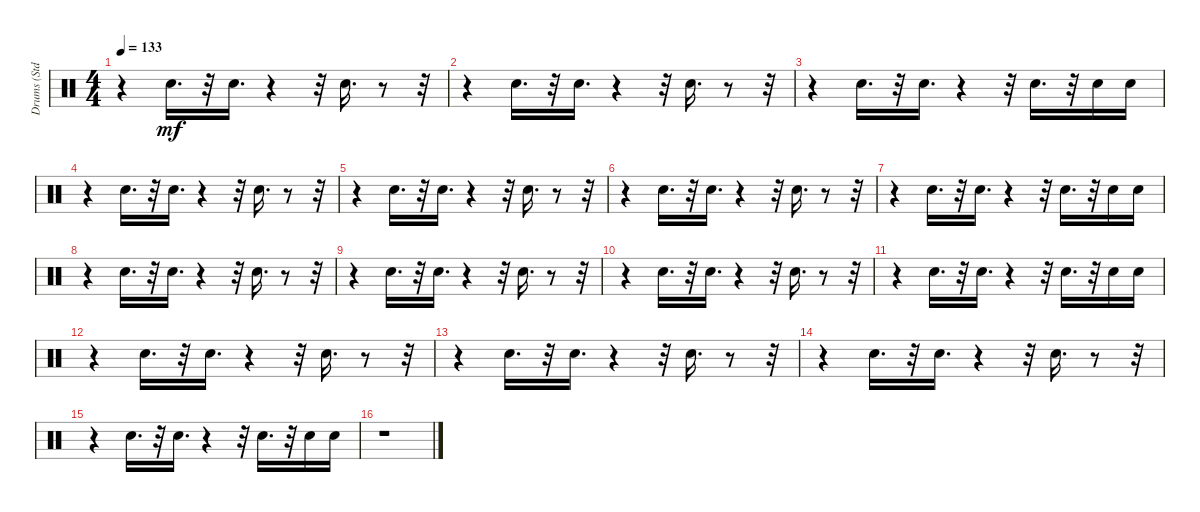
\track ("Drums (Std.)" "Drums (Std") {instrument percussion}
\staff {score}
\articulation defaults
\ts (4 4)
\tempo 133
\clef neutral
\ks c
r.4{dy mf} "Snare (hit) 2".16{d} r.32 "Snare (hit) 2".16{d} r.4 r.32 "Snare (hit) 2".16{d} r.8 r.32 |
r.4 "Snare (hit) 2".16{d} r.32 "Snare (hit) 2".16{d} r.4 r.32 "Snare (hit) 2".16{d} r.8 r.32 |
r.4 "Snare (hit) 2".16{d} r.32 "Snare (hit) 2".16{d} r.4 r.32 "Snare (hit) 2".16{d} r.32 "Snare (hit) 2".16 "Snare (hit) 2".16 |
r.4 "Snare (hit) 2".16{d} r.32 "Snare (hit) 2".16{d} r.4 r.32 "Snare (hit) 2".16{d} r.8 r.32 |
r.4 "Snare (hit) 2".16{d} r.32 "Snare (hit) 2".16{d} r.4 r.32 "Snare (hit) 2".16{d} r.8 r.32 |
r.4 "Snare (hit) 2".16{d} r.32 "Snare (hit) 2".16{d} r.4 r.32 "Snare (hit) 2".16{d} r.8 r.32 |
r.4 "Snare (hit) 2".16{d} r.32 "Snare (hit) 2".16{d} r.4 r.32 "Snare (hit) 2".16{d} r.32 "Snare (hit) 2".16 "Snare (hit) 2".16 |
r.4 "Snare (hit) 2".16{d} r.32 "Snare (hit) 2".16{d} r.4 r.32 "Snare (hit) 2".16{d} r.8 r.32 |
r.4 "Snare (hit) 2".16{d} r.32 "Snare (hit) 2".16{d} r.4 r.32 "Snare (hit) 2".16{d} r.8 r.32 |
r.4 "Snare (hit) 2".16{d} r.32 "Snare (hit) 2".16{d} r.4 r.32 "Snare (hit) 2".16{d} r.8 r.32 |
r.4 "Snare (hit) 2".16{d} r.32 "Snare (hit) 2".16{d} r.4 r.32 "Snare (hit) 2".16{d} r.32 "Snare (hit) 2".16 "Snare (hit) 2".16 |
r.4 "Snare (hit) 2".16{d} r.32 "Snare (hit) 2".16{d} r.4 r.32 "Snare (hit) 2".16{d} r.8 r.32 |
r.4 "Snare (hit) 2".16{d} r.32 "Snare (hit) 2".16{d} r.4 r.32 "Snare (hit) 2".16{d} r.8 r.32 |
r.4 "Snare (hit) 2".16{d} r.32 "Snare (hit) 2".16{d} r.4 r.32 "Snare (hit) 2".16{d} r.8 r.32 |
r.4 "Snare (hit) 2".16{d} r.32 "Snare (hit) 2".16{d} r.4 r.32 "Snare (hit) 2".16{d} r.32 "Snare (hit) 2".16 "Snare (hit) 2".16 |
r.1
